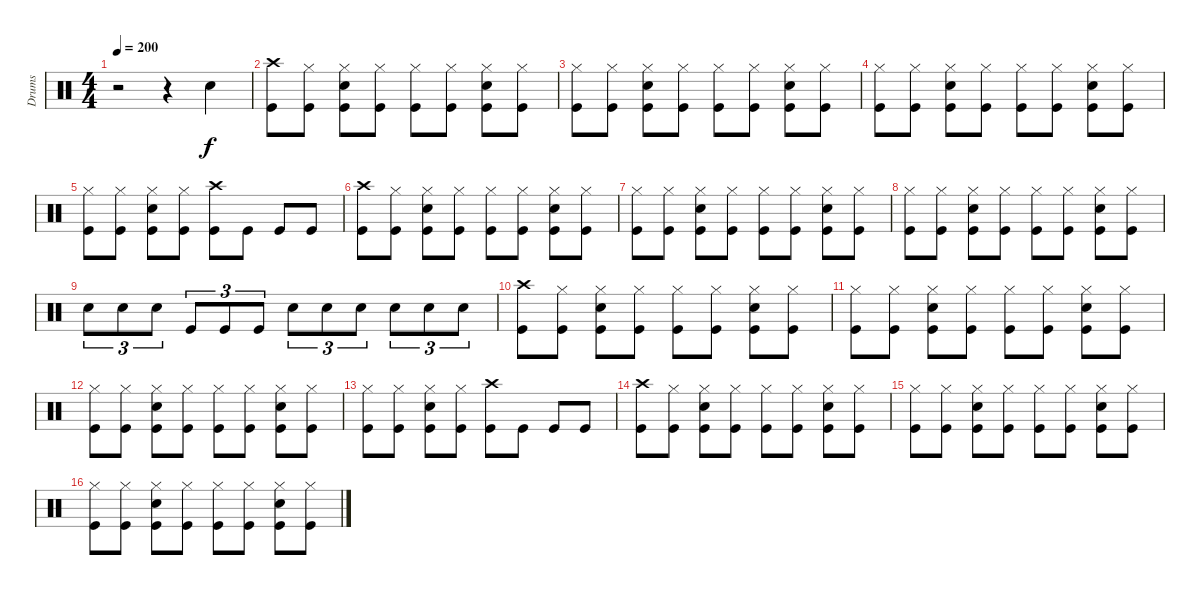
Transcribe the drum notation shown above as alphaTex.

\track ("Drums" "Drums") {instrument percussion}
\staff {score}
\articulation defaults
\ts (4 4)
\tempo 200
\clef neutral
\ks c
r.2{dy f} r.4 "Snare (hit) 2".4 |
("Crash high (hit)" "Kick (hit)").8 ("Hi-Hat (closed)" "Kick (hit)").8 ("Hi-Hat (closed)" "Snare (hit) 2" "Kick (hit)").8 ("Hi-Hat (closed)" "Kick (hit)").8 ("Hi-Hat (closed)" "Kick (hit)").8 ("Hi-Hat (closed)" "Kick (hit)").8 ("Hi-Hat (closed)" "Snare (hit) 2" "Kick (hit)").8 ("Hi-Hat (closed)" "Kick (hit)").8 |
("Hi-Hat (closed)" "Kick (hit)").8 ("Hi-Hat (closed)" "Kick (hit)").8 ("Hi-Hat (closed)" "Snare (hit) 2" "Kick (hit)").8 ("Hi-Hat (closed)" "Kick (hit)").8 ("Hi-Hat (closed)" "Kick (hit)").8 ("Hi-Hat (closed)" "Kick (hit)").8 ("Hi-Hat (closed)" "Snare (hit) 2" "Kick (hit)").8 ("Hi-Hat (closed)" "Kick (hit)").8 |
("Hi-Hat (closed)" "Kick (hit)").8 ("Hi-Hat (closed)" "Kick (hit)").8 ("Hi-Hat (closed)" "Snare (hit) 2" "Kick (hit)").8 ("Hi-Hat (closed)" "Kick (hit)").8 ("Hi-Hat (closed)" "Kick (hit)").8 ("Hi-Hat (closed)" "Kick (hit)").8 ("Hi-Hat (closed)" "Snare (hit) 2" "Kick (hit)").8 ("Hi-Hat (closed)" "Kick (hit)").8 |
("Hi-Hat (closed)" "Kick (hit)").8 ("Hi-Hat (closed)" "Kick (hit)").8 ("Hi-Hat (closed)" "Snare (hit) 2" "Kick (hit)").8 ("Hi-Hat (closed)" "Kick (hit)").8 ("Crash high (hit)" "Kick (hit)").8 "Kick (hit)".8 "Kick (hit)".8 "Kick (hit)".8 |
("Crash high (hit)" "Kick (hit)").8 ("Hi-Hat (closed)" "Kick (hit)").8 ("Hi-Hat (closed)" "Snare (hit) 2" "Kick (hit)").8 ("Hi-Hat (closed)" "Kick (hit)").8 ("Hi-Hat (closed)" "Kick (hit)").8 ("Hi-Hat (closed)" "Kick (hit)").8 ("Hi-Hat (closed)" "Snare (hit) 2" "Kick (hit)").8 ("Hi-Hat (closed)" "Kick (hit)").8 |
("Hi-Hat (closed)" "Kick (hit)").8 ("Hi-Hat (closed)" "Kick (hit)").8 ("Hi-Hat (closed)" "Snare (hit) 2" "Kick (hit)").8 ("Hi-Hat (closed)" "Kick (hit)").8 ("Hi-Hat (closed)" "Kick (hit)").8 ("Hi-Hat (closed)" "Kick (hit)").8 ("Hi-Hat (closed)" "Snare (hit) 2" "Kick (hit)").8 ("Hi-Hat (closed)" "Kick (hit)").8 |
("Hi-Hat (closed)" "Kick (hit)").8 ("Hi-Hat (closed)" "Kick (hit)").8 ("Hi-Hat (closed)" "Snare (hit) 2" "Kick (hit)").8 ("Hi-Hat (closed)" "Kick (hit)").8 ("Hi-Hat (closed)" "Kick (hit)").8 ("Hi-Hat (closed)" "Kick (hit)").8 ("Hi-Hat (closed)" "Snare (hit) 2" "Kick (hit)").8 ("Hi-Hat (closed)" "Kick (hit)").8 |
"Snare (hit) 2".8{tu (3 2)} "Snare (hit) 2".8{tu (3 2)} "Snare (hit) 2".8{tu (3 2)} "Kick (hit)".8{tu (3 2)} "Kick (hit)".8{tu (3 2)} "Kick (hit)".8{tu (3 2)} "Snare (hit) 2".8{tu (3 2)} "Snare (hit) 2".8{tu (3 2)} "Snare (hit) 2".8{tu (3 2)} "Snare (hit) 2".8{tu (3 2)} "Snare (hit) 2".8{tu (3 2)} "Snare (hit) 2".8{tu (3 2)} |
("Crash high (hit)" "Kick (hit)").8 ("Hi-Hat (closed)" "Kick (hit)").8 ("Hi-Hat (closed)" "Snare (hit) 2" "Kick (hit)").8 ("Hi-Hat (closed)" "Kick (hit)").8 ("Hi-Hat (closed)" "Kick (hit)").8 ("Hi-Hat (closed)" "Kick (hit)").8 ("Hi-Hat (closed)" "Snare (hit) 2" "Kick (hit)").8 ("Hi-Hat (closed)" "Kick (hit)").8 |
("Hi-Hat (closed)" "Kick (hit)").8 ("Hi-Hat (closed)" "Kick (hit)").8 ("Hi-Hat (closed)" "Snare (hit) 2" "Kick (hit)").8 ("Hi-Hat (closed)" "Kick (hit)").8 ("Hi-Hat (closed)" "Kick (hit)").8 ("Hi-Hat (closed)" "Kick (hit)").8 ("Hi-Hat (closed)" "Snare (hit) 2" "Kick (hit)").8 ("Hi-Hat (closed)" "Kick (hit)").8 |
("Hi-Hat (closed)" "Kick (hit)").8 ("Hi-Hat (closed)" "Kick (hit)").8 ("Hi-Hat (closed)" "Snare (hit) 2" "Kick (hit)").8 ("Hi-Hat (closed)" "Kick (hit)").8 ("Hi-Hat (closed)" "Kick (hit)").8 ("Hi-Hat (closed)" "Kick (hit)").8 ("Hi-Hat (closed)" "Snare (hit) 2" "Kick (hit)").8 ("Hi-Hat (closed)" "Kick (hit)").8 |
("Hi-Hat (closed)" "Kick (hit)").8 ("Hi-Hat (closed)" "Kick (hit)").8 ("Hi-Hat (closed)" "Snare (hit) 2" "Kick (hit)").8 ("Hi-Hat (closed)" "Kick (hit)").8 ("Crash high (hit)" "Kick (hit)").8 "Kick (hit)".8 "Kick (hit)".8 "Kick (hit)".8 |
("Crash high (hit)" "Kick (hit)").8 ("Hi-Hat (closed)" "Kick (hit)").8 ("Hi-Hat (closed)" "Snare (hit) 2" "Kick (hit)").8 ("Hi-Hat (closed)" "Kick (hit)").8 ("Hi-Hat (closed)" "Kick (hit)").8 ("Hi-Hat (closed)" "Kick (hit)").8 ("Hi-Hat (closed)" "Snare (hit) 2" "Kick (hit)").8 ("Hi-Hat (closed)" "Kick (hit)").8 |
("Hi-Hat (closed)" "Kick (hit)").8 ("Hi-Hat (closed)" "Kick (hit)").8 ("Hi-Hat (closed)" "Snare (hit) 2" "Kick (hit)").8 ("Hi-Hat (closed)" "Kick (hit)").8 ("Hi-Hat (closed)" "Kick (hit)").8 ("Hi-Hat (closed)" "Kick (hit)").8 ("Hi-Hat (closed)" "Snare (hit) 2" "Kick (hit)").8 ("Hi-Hat (closed)" "Kick (hit)").8 |
("Hi-Hat (closed)" "Kick (hit)").8 ("Hi-Hat (closed)" "Kick (hit)").8 ("Hi-Hat (closed)" "Snare (hit) 2" "Kick (hit)").8 ("Hi-Hat (closed)" "Kick (hit)").8 ("Hi-Hat (closed)" "Kick (hit)").8 ("Hi-Hat (closed)" "Kick (hit)").8 ("Hi-Hat (closed)" "Snare (hit) 2" "Kick (hit)").8 ("Hi-Hat (closed)" "Kick (hit)").8
